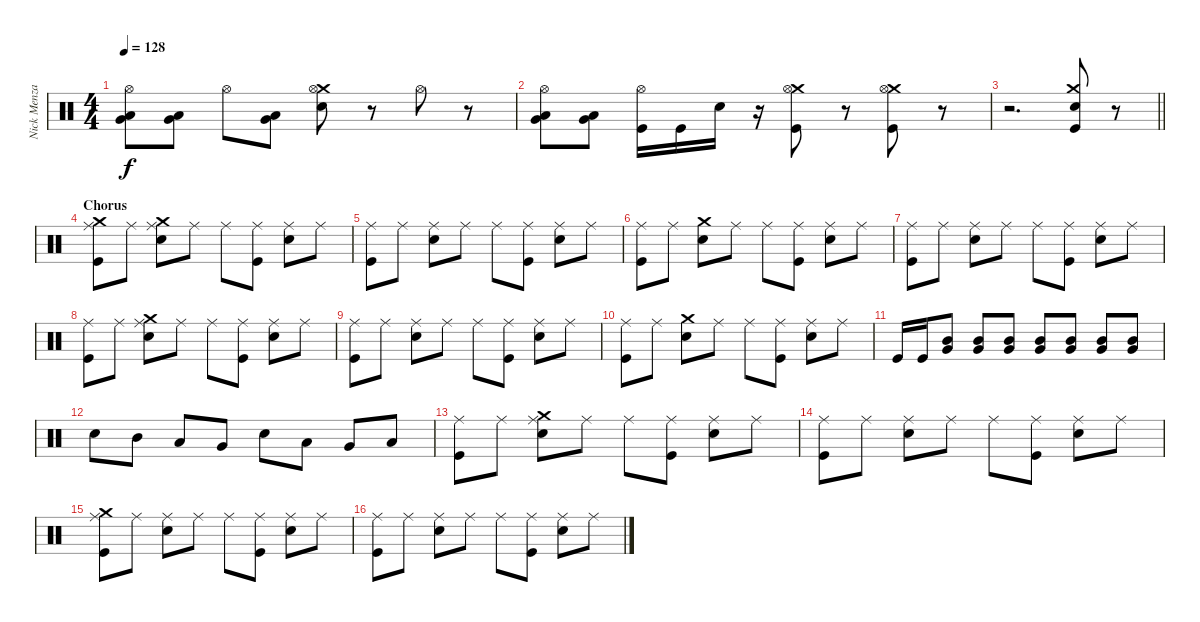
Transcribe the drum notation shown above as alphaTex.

\track ("Nick Menza" "Nick Menza") {instrument percussion}
\staff {score}
\articulation defaults
\ts (4 4)
\tempo 128
\clef neutral
\ks c
("Low Tom (hit)" "Very Low Tom (hit)" "Hi-Hat (open)").8{dy f} ("Very Low Tom (hit)" "Low Tom (hit)").8 "Hi-Hat (open)".8 ("Low Tom (hit)" "Very Low Tom (hit)").8 ("Electric Snare (hit)" "Crash medium (hit)" "Hi-Hat (open)").8 r.8 "Hi-Hat (open)".8 r.8 |
("Low Tom (hit)" "Very Low Tom (hit)" "Hi-Hat (open)").8 ("Very Low Tom (hit)" "Low Tom (hit)").8 ("Kick (hit)" "Hi-Hat (open)").16 "Kick (hit)".16 "Electric Snare (hit)".16 r.16 ("Kick (hit)" "Crash medium (hit)" "Hi-Hat (open)").8 r.8 ("Kick (hit)" "Crash medium (hit)" "Hi-Hat (open)").8 r.8 |
\barLineRight lightlight
r.2{d} ("Kick (hit)" "Electric Snare (hit)" "Crash medium (hit)").8 r.8 |
\section ("" "Chorus")
("Crash medium (hit)" "Ride (middle)" "Kick (hit)").8 "Ride (middle)".8 ("Crash medium (hit)" "Ride (middle)" "Electric Snare (hit)").8 "Ride (middle)".8 "Ride (middle)".8 ("Kick (hit)" "Ride (middle)").8 ("Ride (middle)" "Electric Snare (hit)").8 "Ride (middle)".8 |
("Ride (middle)" "Kick (hit)").8 "Ride (middle)".8 ("Electric Snare (hit)" "Ride (middle)").8 "Ride (middle)".8 "Ride (middle)".8 ("Kick (hit)" "Ride (middle)").8 ("Ride (middle)" "Electric Snare (hit)").8 "Ride (middle)".8 |
("Ride (middle)" "Kick (hit)").8 "Ride (middle)".8 ("Crash medium (hit)" "Electric Snare (hit)").8 "Ride (middle)".8 "Ride (middle)".8 ("Kick (hit)" "Ride (middle)").8 ("Ride (middle)" "Electric Snare (hit)").8 "Ride (middle)".8 |
("Ride (middle)" "Kick (hit)").8 "Ride (middle)".8 ("Electric Snare (hit)" "Ride (middle)").8 "Ride (middle)".8 "Ride (middle)".8 ("Kick (hit)" "Ride (middle)").8 ("Ride (middle)" "Electric Snare (hit)").8 "Ride (middle)".8 |
("Ride (middle)" "Kick (hit)").8 "Ride (middle)".8 ("Crash medium (hit)" "Ride (middle)" "Electric Snare (hit)").8 "Ride (middle)".8 "Ride (middle)".8 ("Kick (hit)" "Ride (middle)").8 ("Ride (middle)" "Electric Snare (hit)").8 "Ride (middle)".8 |
("Ride (middle)" "Kick (hit)").8 "Ride (middle)".8 ("Electric Snare (hit)" "Ride (middle)").8 "Ride (middle)".8 "Ride (middle)".8 ("Kick (hit)" "Ride (middle)").8 ("Ride (middle)" "Electric Snare (hit)").8 "Ride (middle)".8 |
("Ride (middle)" "Kick (hit)").8 "Ride (middle)".8 ("Crash medium (hit)" "Electric Snare (hit)").8 "Ride (middle)".8 "Ride (middle)".8 ("Kick (hit)" "Ride (middle)").8 ("Ride (middle)" "Electric Snare (hit)").8 "Ride (middle)".8 |
"Kick (hit)".16 "Kick (hit)".16 ("Mid Tom (hit)" "Very Low Tom (hit)").8 ("Mid Tom (hit)" "Very Low Tom (hit)").8 ("Mid Tom (hit)" "Very Low Tom (hit)").8 ("Mid Tom (hit)" "Very Low Tom (hit)").8 ("Mid Tom (hit)" "Very Low Tom (hit)").8 ("Mid Tom (hit)" "Very Low Tom (hit)").8 ("Mid Tom (hit)" "Very Low Tom (hit)").8 |
"Electric Snare (hit)".8 "Mid Tom (hit)".8 "Low Tom (hit)".8 "Very Low Tom (hit)".8 "Electric Snare (hit)".8 "Low Tom (hit)".8 "Very Low Tom (hit)".8 "Low Floor Tom (hit)".8 |
("Ride (middle)" "Kick (hit)").8 "Ride (middle)".8 ("Crash medium (hit)" "Ride (middle)" "Electric Snare (hit)").8 "Ride (middle)".8 "Ride (middle)".8 ("Kick (hit)" "Ride (middle)").8 ("Ride (middle)" "Electric Snare (hit)").8 "Ride (middle)".8 |
("Ride (middle)" "Kick (hit)").8 "Ride (middle)".8 ("Electric Snare (hit)" "Ride (middle)").8 "Ride (middle)".8 "Ride (middle)".8 ("Kick (hit)" "Ride (middle)").8 ("Ride (middle)" "Electric Snare (hit)").8 "Ride (middle)".8 |
("Crash medium (hit)" "Ride (middle)" "Kick (hit)").8 "Ride (middle)".8 ("Ride (middle)" "Electric Snare (hit)").8 "Ride (middle)".8 "Ride (middle)".8 ("Kick (hit)" "Ride (middle)").8 ("Ride (middle)" "Electric Snare (hit)").8 "Ride (middle)".8 |
("Ride (middle)" "Kick (hit)").8 "Ride (middle)".8 ("Electric Snare (hit)" "Ride (middle)").8 "Ride (middle)".8 "Ride (middle)".8 ("Kick (hit)" "Ride (middle)").8 ("Ride (middle)" "Electric Snare (hit)").8 "Ride (middle)".8
